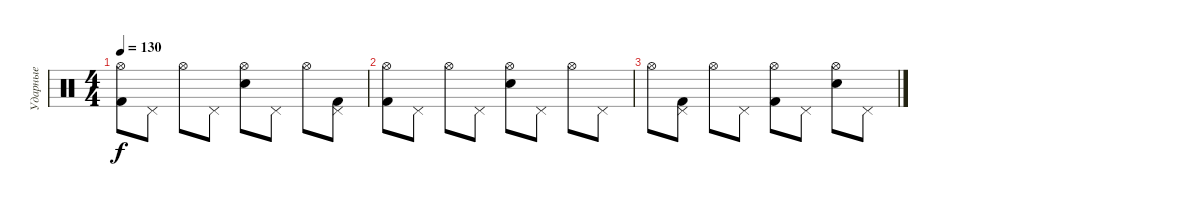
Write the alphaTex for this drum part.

\track ("Ударные" "Ударные") {instrument percussion}
\staff {score}
\articulation defaults
\ts (4 4)
\tempo 130
\clef neutral
\ks c
("Kick (hit) 2" "Hi-Hat (open)").8{dy f} "Pedal Hi-Hat (hit)".8 "Hi-Hat (open)".8 "Pedal Hi-Hat (hit)".8 ("Snare (hit) 2" "Hi-Hat (open)").8 "Pedal Hi-Hat (hit)".8 "Hi-Hat (open)".8 ("Kick (hit) 2" "Pedal Hi-Hat (hit)").8 |
("Kick (hit) 2" "Hi-Hat (open)").8 "Pedal Hi-Hat (hit)".8 "Hi-Hat (open)".8 "Pedal Hi-Hat (hit)".8 ("Snare (hit) 2" "Hi-Hat (open)").8 "Pedal Hi-Hat (hit)".8 "Hi-Hat (open)".8 "Pedal Hi-Hat (hit)".8 |
"Hi-Hat (open)".8 ("Kick (hit) 2" "Pedal Hi-Hat (hit)").8 "Hi-Hat (open)".8 "Pedal Hi-Hat (hit)".8 ("Kick (hit) 2" "Hi-Hat (open)").8 "Pedal Hi-Hat (hit)".8 ("Snare (hit) 2" "Hi-Hat (open)").8 "Pedal Hi-Hat (hit)".8
